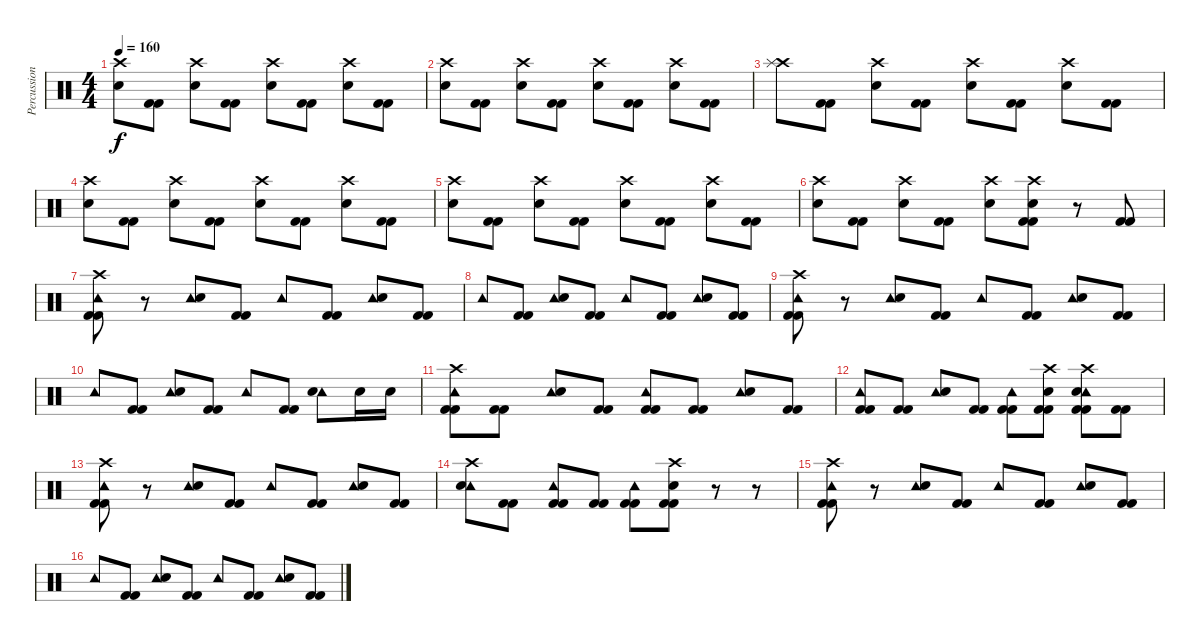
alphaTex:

\track ("Percussion" "Percussion") {instrument percussion}
\staff {score}
\articulation defaults
\ts (4 4)
\tempo 160
\clef neutral
\ks c
("Crash high (hit)" "Electric Snare (hit)").8{dy f} ("Kick (hit) 2" "Kick (hit) 2").8 ("Crash high (hit)" "Electric Snare (hit)").8 ("Kick (hit) 2" "Kick (hit) 2").8 ("Crash high (hit)" "Electric Snare (hit)").8 ("Kick (hit) 2" "Kick (hit) 2").8 ("Crash high (hit)" "Electric Snare (hit)").8 ("Kick (hit) 2" "Kick (hit) 2").8 |
("Crash high (hit)" "Electric Snare (hit)").8 ("Kick (hit) 2" "Kick (hit) 2").8 ("Crash high (hit)" "Electric Snare (hit)").8 ("Kick (hit) 2" "Kick (hit) 2").8 ("Crash high (hit)" "Electric Snare (hit)").8 ("Kick (hit) 2" "Kick (hit) 2").8 ("Crash high (hit)" "Electric Snare (hit)").8 ("Kick (hit) 2" "Kick (hit) 2").8 |
("Crash high (hit)" "Splash (hit)").8 ("Kick (hit) 2" "Kick (hit) 2").8 ("Crash high (hit)" "Electric Snare (hit)").8 ("Kick (hit) 2" "Kick (hit) 2").8 ("Crash high (hit)" "Electric Snare (hit)").8 ("Kick (hit) 2" "Kick (hit) 2").8 ("Crash high (hit)" "Electric Snare (hit)").8 ("Kick (hit) 2" "Kick (hit) 2").8 |
("Crash high (hit)" "Electric Snare (hit)").8 ("Kick (hit) 2" "Kick (hit) 2").8 ("Crash high (hit)" "Electric Snare (hit)").8 ("Kick (hit) 2" "Kick (hit) 2").8 ("Crash high (hit)" "Electric Snare (hit)").8 ("Kick (hit) 2" "Kick (hit) 2").8 ("Crash high (hit)" "Electric Snare (hit)").8 ("Kick (hit) 2" "Kick (hit) 2").8 |
("Crash high (hit)" "Electric Snare (hit)").8 ("Kick (hit) 2" "Kick (hit) 2").8 ("Crash high (hit)" "Electric Snare (hit)").8 ("Kick (hit) 2" "Kick (hit) 2").8 ("Crash high (hit)" "Electric Snare (hit)").8 ("Kick (hit) 2" "Kick (hit) 2").8 ("Crash high (hit)" "Electric Snare (hit)").8 ("Kick (hit) 2" "Kick (hit) 2").8 |
("Crash high (hit)" "Electric Snare (hit)").8 ("Kick (hit) 2" "Kick (hit) 2").8 ("Crash high (hit)" "Electric Snare (hit)").8 ("Kick (hit) 2" "Kick (hit) 2").8 ("Crash high (hit)" "Electric Snare (hit)").8 ("Crash high (hit)" "Electric Snare (hit)" "Kick (hit) 2" "Kick (hit) 2").8 r.8 ("Kick (hit) 2" "Kick (hit) 2").8 |
("Tambourine (hit)" "Crash high (hit)" "Kick (hit) 2" "Kick (hit) 2").8 r.8 ("Tambourine (hit)" "Electric Snare (hit)").8 ("Kick (hit) 2" "Kick (hit) 2").8 "Tambourine (hit)".8 ("Kick (hit) 2" "Kick (hit) 2").8 ("Tambourine (hit)" "Electric Snare (hit)").8 ("Kick (hit) 2" "Kick (hit) 2").8 |
"Tambourine (hit)".8 ("Kick (hit) 2" "Kick (hit) 2").8 ("Tambourine (hit)" "Electric Snare (hit)").8 ("Kick (hit) 2" "Kick (hit) 2").8 "Tambourine (hit)".8 ("Kick (hit) 2" "Kick (hit) 2").8 ("Tambourine (hit)" "Electric Snare (hit)").8 ("Kick (hit) 2" "Kick (hit) 2").8 |
("Tambourine (hit)" "Crash high (hit)" "Kick (hit) 2" "Kick (hit) 2").8 r.8 ("Tambourine (hit)" "Electric Snare (hit)").8 ("Kick (hit) 2" "Kick (hit) 2").8 "Tambourine (hit)".8 ("Kick (hit) 2" "Kick (hit) 2").8 ("Tambourine (hit)" "Electric Snare (hit)").8 ("Kick (hit) 2" "Kick (hit) 2").8 |
"Tambourine (hit)".8 ("Kick (hit) 2" "Kick (hit) 2").8 ("Tambourine (hit)" "Electric Snare (hit)").8 ("Kick (hit) 2" "Kick (hit) 2").8 "Tambourine (hit)".8 ("Kick (hit) 2" "Kick (hit) 2").8 ("Tambourine (hit)" "Electric Snare (hit)").8 "Snare (hit) 2".16 "Snare (hit) 2".16 |
("Tambourine (hit)" "Crash high (hit)" "Kick (hit) 2" "Kick (hit) 2").8 ("Kick (hit) 2" "Kick (hit) 2").8 ("Tambourine (hit)" "Electric Snare (hit)").8 ("Kick (hit) 2" "Kick (hit) 2").8 ("Tambourine (hit)" "Kick (hit) 2" "Kick (hit) 2").8 ("Kick (hit) 2" "Kick (hit) 2").8 ("Tambourine (hit)" "Electric Snare (hit)").8 ("Kick (hit) 2" "Kick (hit) 2").8 |
("Tambourine (hit)" "Kick (hit) 2" "Kick (hit) 2").8 ("Kick (hit) 2" "Kick (hit) 2").8 ("Tambourine (hit)" "Electric Snare (hit)").8 ("Kick (hit) 2" "Kick (hit) 2").8 ("Tambourine (hit)" "Kick (hit) 2" "Kick (hit) 2").8 ("Crash high (hit)" "Electric Snare (hit)" "Kick (hit) 2" "Kick (hit) 2").8 ("Tambourine (hit)" "Crash high (hit)" "Electric Snare (hit)" "Kick (hit) 2" "Kick (hit) 2").8 ("Kick (hit) 2" "Kick (hit) 2").8 |
("Tambourine (hit)" "Crash high (hit)" "Kick (hit) 2" "Kick (hit) 2").8 r.8 ("Tambourine (hit)" "Electric Snare (hit)").8 ("Kick (hit) 2" "Kick (hit) 2").8 "Tambourine (hit)".8 ("Kick (hit) 2" "Kick (hit) 2").8 ("Tambourine (hit)" "Electric Snare (hit)").8 ("Kick (hit) 2" "Kick (hit) 2").8 |
("Tambourine (hit)" "Crash high (hit)" "Electric Snare (hit)").8 ("Kick (hit) 2" "Kick (hit) 2").8 ("Tambourine (hit)" "Kick (hit) 2" "Kick (hit) 2").8 ("Kick (hit) 2" "Kick (hit) 2").8 ("Tambourine (hit)" "Kick (hit) 2" "Kick (hit) 2").8 ("Crash high (hit)" "Electric Snare (hit)" "Kick (hit) 2" "Kick (hit) 2").8 r.8 r.8 |
("Tambourine (hit)" "Crash high (hit)" "Kick (hit) 2" "Kick (hit) 2").8 r.8 ("Tambourine (hit)" "Electric Snare (hit)").8 ("Kick (hit) 2" "Kick (hit) 2").8 "Tambourine (hit)".8 ("Kick (hit) 2" "Kick (hit) 2").8 ("Tambourine (hit)" "Electric Snare (hit)").8 ("Kick (hit) 2" "Kick (hit) 2").8 |
"Tambourine (hit)".8 ("Kick (hit) 2" "Kick (hit) 2").8 ("Tambourine (hit)" "Electric Snare (hit)").8 ("Kick (hit) 2" "Kick (hit) 2").8 "Tambourine (hit)".8 ("Kick (hit) 2" "Kick (hit) 2").8 ("Tambourine (hit)" "Electric Snare (hit)").8 ("Kick (hit) 2" "Kick (hit) 2").8
